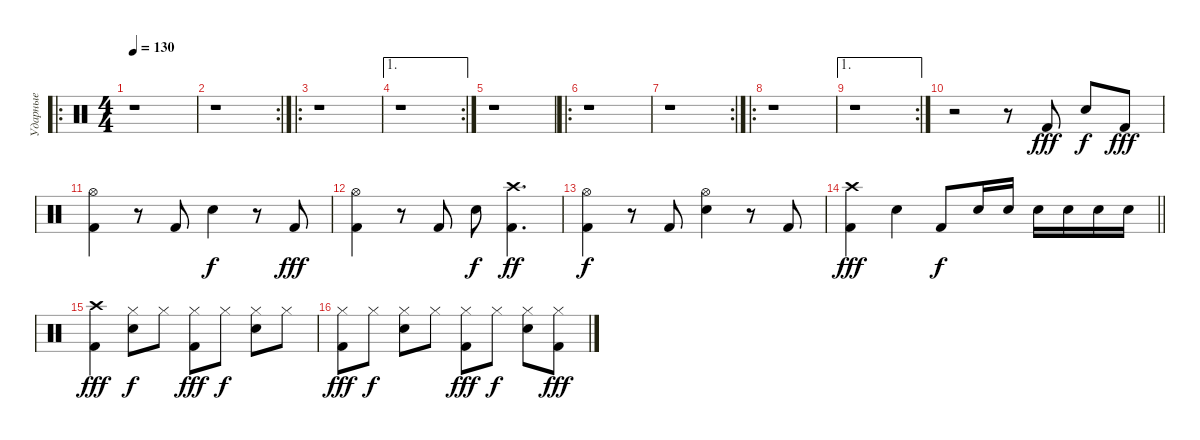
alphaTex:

\track ("Ударные" "Ударные") {instrument percussion}
\staff {score}
\articulation defaults
\ro
\ts (4 4)
\tempo 130
\clef neutral
\ks c
r.1{dy fff} |
\rc 2
r.1 |
\ro
r.1 |
\ae 1
\rc 2
r.1 |
r.1 |
\ro
r.1 |
\rc 2
r.1 |
\ro
r.1 |
\ae 1
\rc 2
r.1 |
r.2 r.8 "Kick (hit) 2".8 "Snare (hit) 2".8{dy f} "Kick (hit) 2".8{dy fff} |
("Kick (hit) 2" "Hi-Hat (open)").4 r.8 "Kick (hit) 2".8 "Snare (hit) 2".4{dy f} r.8 "Kick (hit) 2".8{dy fff} |
("Kick (hit) 2" "Hi-Hat (open)").4 r.8 "Kick (hit) 2".8 "Snare (hit) 2".8{dy f} ("Kick (hit) 2" "Crash high (hit)").4{d dy ff} |
("Kick (hit) 2" "Hi-Hat (open)").4{dy f} r.8 "Kick (hit) 2".8 ("Snare (hit) 2" "Hi-Hat (open)").4 r.8 "Kick (hit) 2".8 |
\barLineRight lightlight
("Kick (hit) 2" "Crash high (hit)").4{dy fff} "Snare (hit) 2".4 "Kick (hit) 2".8{dy f} "Snare (hit) 2".16 "Snare (hit) 2".16 "Snare (hit) 2".16 "Snare (hit) 2".16 "Snare (hit) 2".16 "Snare (hit) 2".16 |
("Kick (hit) 2" "Crash high (hit)").4{dy fff} ("Snare (hit) 2" "Hi-Hat (closed)").8{dy f} "Hi-Hat (closed)".8 ("Kick (hit) 2" "Hi-Hat (closed)").8{dy fff} "Hi-Hat (closed)".8{dy f} ("Snare (hit) 2" "Hi-Hat (closed)").8 "Hi-Hat (closed)".8 |
("Kick (hit) 2" "Hi-Hat (closed)").8{dy fff} "Hi-Hat (closed)".8{dy f} ("Snare (hit) 2" "Hi-Hat (closed)").8 "Hi-Hat (closed)".8 ("Kick (hit) 2" "Hi-Hat (closed)").8{dy fff} "Hi-Hat (closed)".8{dy f} ("Snare (hit) 2" "Hi-Hat (closed)").8 ("Kick (hit) 2" "Hi-Hat (closed)").8{dy fff}
